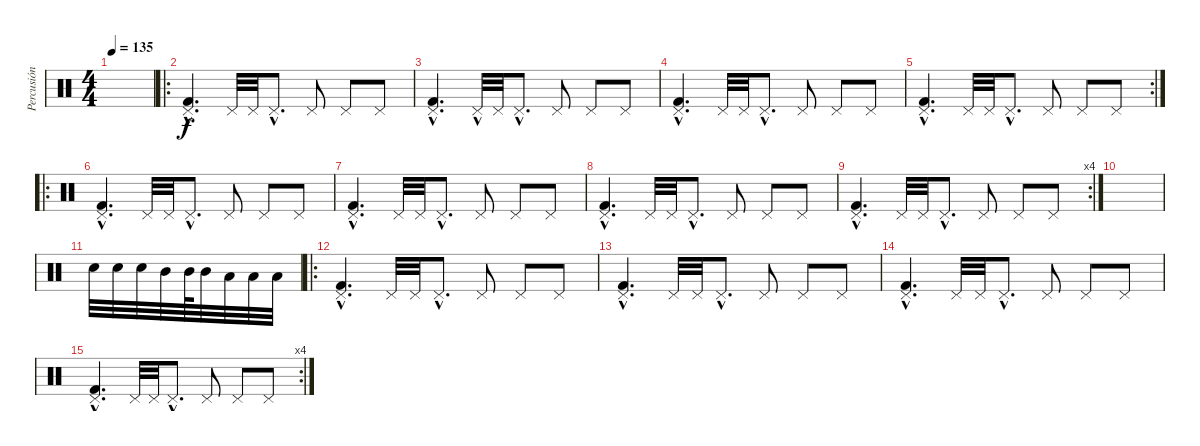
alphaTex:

\track ("Percusión Bateria" "Percusión ") {instrument percussion}
\staff {score}
\articulation defaults
\ts (4 4)
\tempo 135
\clef neutral
\ks c
|
\ro
("Pedal Hi-Hat (hit)"{hac} "Kick (hit) 2"{hac}).4{d} "Pedal Hi-Hat (hit)".32 "Pedal Hi-Hat (hit)".32 "Pedal Hi-Hat (hit)"{hac}.8{d} "Pedal Hi-Hat (hit)".8 "Pedal Hi-Hat (hit)".8 "Pedal Hi-Hat (hit)".8 |
("Pedal Hi-Hat (hit)"{hac} "Kick (hit) 2"{hac}).4{d} "Pedal Hi-Hat (hit)"{hac}.32 "Pedal Hi-Hat (hit)".32 "Pedal Hi-Hat (hit)"{hac}.8{d} "Pedal Hi-Hat (hit)".8 "Pedal Hi-Hat (hit)".8 "Pedal Hi-Hat (hit)".8 |
("Pedal Hi-Hat (hit)"{hac} "Kick (hit) 2"{hac}).4{d} "Pedal Hi-Hat (hit)".32 "Pedal Hi-Hat (hit)".32 "Pedal Hi-Hat (hit)"{hac}.8{d} "Pedal Hi-Hat (hit)".8 "Pedal Hi-Hat (hit)".8 "Pedal Hi-Hat (hit)".8 |
\rc 2
("Pedal Hi-Hat (hit)"{hac} "Kick (hit) 2"{hac}).4{d} "Pedal Hi-Hat (hit)".32 "Pedal Hi-Hat (hit)".32 "Pedal Hi-Hat (hit)"{hac}.8{d} "Pedal Hi-Hat (hit)".8 "Pedal Hi-Hat (hit)".8 "Pedal Hi-Hat (hit)".8 |
\ro
("Pedal Hi-Hat (hit)"{hac} "Kick (hit) 2"{hac}).4{d} "Pedal Hi-Hat (hit)".32 "Pedal Hi-Hat (hit)".32 "Pedal Hi-Hat (hit)"{hac}.8{d} "Pedal Hi-Hat (hit)".8 "Pedal Hi-Hat (hit)".8 "Pedal Hi-Hat (hit)".8 |
("Pedal Hi-Hat (hit)"{hac} "Kick (hit) 2"{hac}).4{d} "Pedal Hi-Hat (hit)".32 "Pedal Hi-Hat (hit)".32 "Pedal Hi-Hat (hit)"{hac}.8{d} "Pedal Hi-Hat (hit)".8 "Pedal Hi-Hat (hit)".8 "Pedal Hi-Hat (hit)".8 |
("Pedal Hi-Hat (hit)"{hac} "Kick (hit) 2"{hac}).4{d} "Pedal Hi-Hat (hit)".32 "Pedal Hi-Hat (hit)".32 "Pedal Hi-Hat (hit)"{hac}.8{d} "Pedal Hi-Hat (hit)".8 "Pedal Hi-Hat (hit)".8 "Pedal Hi-Hat (hit)".8 |
\rc 4
("Pedal Hi-Hat (hit)"{hac} "Kick (hit) 2"{hac}).4{d} "Pedal Hi-Hat (hit)".32 "Pedal Hi-Hat (hit)".32 "Pedal Hi-Hat (hit)"{hac}.8{d} "Pedal Hi-Hat (hit)".8 "Pedal Hi-Hat (hit)".8 "Pedal Hi-Hat (hit)".8 |
|
"Snare (hit) 2".32 "Snare (hit) 2".32 "Snare (hit) 2".32 "Mid Tom (hit)".32 "Mid Tom (hit)".64 "Mid Tom (hit)".32 "Low Tom (hit)".32 "Low Tom (hit)".32 "Low Tom (hit)".32 |
\ro
("Pedal Hi-Hat (hit)"{hac} "Kick (hit) 2"{hac}).4{d} "Pedal Hi-Hat (hit)".32 "Pedal Hi-Hat (hit)".32 "Pedal Hi-Hat (hit)"{hac}.8{d} "Pedal Hi-Hat (hit)".8 "Pedal Hi-Hat (hit)".8 "Pedal Hi-Hat (hit)".8 |
("Pedal Hi-Hat (hit)"{hac} "Kick (hit) 2"{hac}).4{d} "Pedal Hi-Hat (hit)".32 "Pedal Hi-Hat (hit)".32 "Pedal Hi-Hat (hit)"{hac}.8{d} "Pedal Hi-Hat (hit)".8 "Pedal Hi-Hat (hit)".8 "Pedal Hi-Hat (hit)".8 |
("Pedal Hi-Hat (hit)"{hac} "Kick (hit) 2"{hac}).4{d} "Pedal Hi-Hat (hit)".32 "Pedal Hi-Hat (hit)".32 "Pedal Hi-Hat (hit)"{hac}.8{d} "Pedal Hi-Hat (hit)".8 "Pedal Hi-Hat (hit)".8 "Pedal Hi-Hat (hit)".8 |
\rc 4
("Pedal Hi-Hat (hit)"{hac} "Kick (hit) 2"{hac}).4{d} "Pedal Hi-Hat (hit)".32 "Pedal Hi-Hat (hit)".32 "Pedal Hi-Hat (hit)"{hac}.8{d} "Pedal Hi-Hat (hit)".8 "Pedal Hi-Hat (hit)".8 "Pedal Hi-Hat (hit)".8
